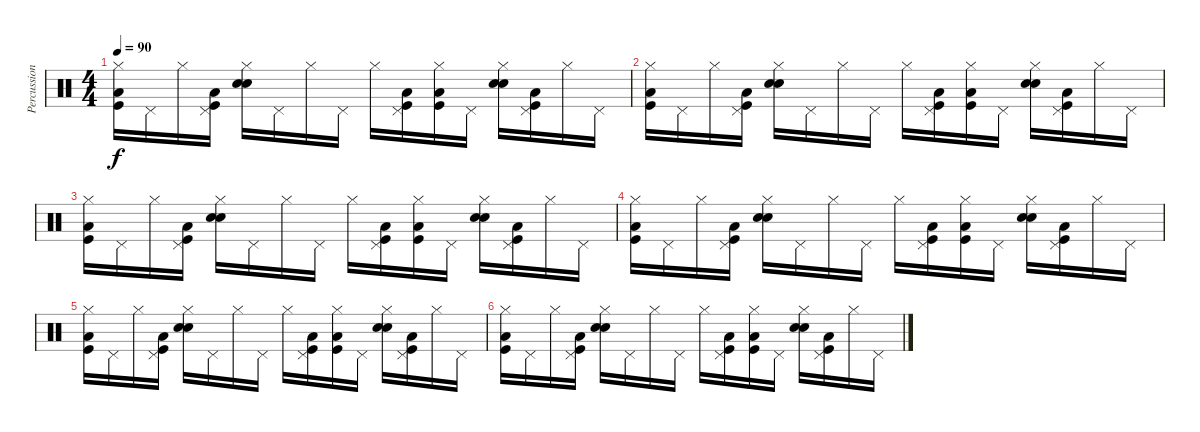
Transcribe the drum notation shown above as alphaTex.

\track ("Percussions" "Percussion") {instrument percussion}
\staff {score}
\articulation defaults
\ts (4 4)
\tempo 90
\clef neutral
\ks c
("Hi-Hat (closed)" "Low Floor Tom (hit)" "Kick (hit)").16{dy f volume 11 balance 0} "Pedal Hi-Hat (hit)".16 "Hi-Hat (closed)".16 ("Pedal Hi-Hat (hit)" "Kick (hit)" "Low Floor Tom (hit)").16 ("Hi-Hat (closed)" "Electric Snare (hit)" "Snare (hit) 2").16 "Pedal Hi-Hat (hit)".16 "Hi-Hat (closed)".16 "Pedal Hi-Hat (hit)".16 "Hi-Hat (closed)".16 ("Pedal Hi-Hat (hit)" "Low Floor Tom (hit)" "Kick (hit)").16 ("Hi-Hat (closed)" "Low Floor Tom (hit)" "Kick (hit)").16 "Pedal Hi-Hat (hit)".16 ("Hi-Hat (closed)" "Electric Snare (hit)" "Snare (hit) 2").16 ("Pedal Hi-Hat (hit)" "Kick (hit)" "Low Floor Tom (hit)").16 "Hi-Hat (closed)".16 "Pedal Hi-Hat (hit)".16 |
("Hi-Hat (closed)" "Low Floor Tom (hit)" "Kick (hit)").16{volume 11 balance 0} "Pedal Hi-Hat (hit)".16 "Hi-Hat (closed)".16 ("Pedal Hi-Hat (hit)" "Kick (hit)" "Low Floor Tom (hit)").16 ("Hi-Hat (closed)" "Electric Snare (hit)" "Snare (hit) 2").16 "Pedal Hi-Hat (hit)".16 "Hi-Hat (closed)".16 "Pedal Hi-Hat (hit)".16 "Hi-Hat (closed)".16 ("Pedal Hi-Hat (hit)" "Low Floor Tom (hit)" "Kick (hit)").16 ("Hi-Hat (closed)" "Low Floor Tom (hit)" "Kick (hit)").16 "Pedal Hi-Hat (hit)".16 ("Hi-Hat (closed)" "Electric Snare (hit)" "Snare (hit) 2").16 ("Pedal Hi-Hat (hit)" "Kick (hit)" "Low Floor Tom (hit)").16 "Hi-Hat (closed)".16 "Pedal Hi-Hat (hit)".16 |
("Hi-Hat (closed)" "Low Floor Tom (hit)" "Kick (hit)").16{volume 11 balance 0} "Pedal Hi-Hat (hit)".16 "Hi-Hat (closed)".16 ("Pedal Hi-Hat (hit)" "Kick (hit)" "Low Floor Tom (hit)").16 ("Hi-Hat (closed)" "Electric Snare (hit)" "Snare (hit) 2").16 "Pedal Hi-Hat (hit)".16 "Hi-Hat (closed)".16 "Pedal Hi-Hat (hit)".16 "Hi-Hat (closed)".16 ("Pedal Hi-Hat (hit)" "Low Floor Tom (hit)" "Kick (hit)").16 ("Hi-Hat (closed)" "Low Floor Tom (hit)" "Kick (hit)").16 "Pedal Hi-Hat (hit)".16 ("Hi-Hat (closed)" "Electric Snare (hit)" "Snare (hit) 2").16 ("Pedal Hi-Hat (hit)" "Kick (hit)" "Low Floor Tom (hit)").16 "Hi-Hat (closed)".16 "Pedal Hi-Hat (hit)".16 |
("Hi-Hat (closed)" "Low Floor Tom (hit)" "Kick (hit)").16{volume 11 balance 0} "Pedal Hi-Hat (hit)".16 "Hi-Hat (closed)".16 ("Pedal Hi-Hat (hit)" "Kick (hit)" "Low Floor Tom (hit)").16 ("Hi-Hat (closed)" "Electric Snare (hit)" "Snare (hit) 2").16 "Pedal Hi-Hat (hit)".16 "Hi-Hat (closed)".16 "Pedal Hi-Hat (hit)".16 "Hi-Hat (closed)".16 ("Pedal Hi-Hat (hit)" "Low Floor Tom (hit)" "Kick (hit)").16 ("Hi-Hat (closed)" "Low Floor Tom (hit)" "Kick (hit)").16 "Pedal Hi-Hat (hit)".16 ("Hi-Hat (closed)" "Electric Snare (hit)" "Snare (hit) 2").16 ("Pedal Hi-Hat (hit)" "Kick (hit)" "Low Floor Tom (hit)").16 "Hi-Hat (closed)".16 "Pedal Hi-Hat (hit)".16 |
("Hi-Hat (closed)" "Low Floor Tom (hit)" "Kick (hit)").16{balance 0} "Pedal Hi-Hat (hit)".16 "Hi-Hat (closed)".16 ("Pedal Hi-Hat (hit)" "Kick (hit)" "Low Floor Tom (hit)").16 ("Hi-Hat (closed)" "Electric Snare (hit)" "Snare (hit) 2").16 "Pedal Hi-Hat (hit)".16 "Hi-Hat (closed)".16 "Pedal Hi-Hat (hit)".16 "Hi-Hat (closed)".16 ("Pedal Hi-Hat (hit)" "Low Floor Tom (hit)" "Kick (hit)").16 ("Hi-Hat (closed)" "Low Floor Tom (hit)" "Kick (hit)").16 "Pedal Hi-Hat (hit)".16 ("Hi-Hat (closed)" "Electric Snare (hit)" "Snare (hit) 2").16 ("Pedal Hi-Hat (hit)" "Kick (hit)" "Low Floor Tom (hit)").16 "Hi-Hat (closed)".16 "Pedal Hi-Hat (hit)".16 |
("Hi-Hat (closed)" "Low Floor Tom (hit)" "Kick (hit)").16{balance 0} "Pedal Hi-Hat (hit)".16 "Hi-Hat (closed)".16 ("Pedal Hi-Hat (hit)" "Kick (hit)" "Low Floor Tom (hit)").16 ("Hi-Hat (closed)" "Electric Snare (hit)" "Snare (hit) 2").16 "Pedal Hi-Hat (hit)".16 "Hi-Hat (closed)".16 "Pedal Hi-Hat (hit)".16 "Hi-Hat (closed)".16 ("Pedal Hi-Hat (hit)" "Low Floor Tom (hit)" "Kick (hit)").16 ("Hi-Hat (closed)" "Low Floor Tom (hit)" "Kick (hit)").16 "Pedal Hi-Hat (hit)".16 ("Hi-Hat (closed)" "Electric Snare (hit)" "Snare (hit) 2").16 ("Pedal Hi-Hat (hit)" "Kick (hit)" "Low Floor Tom (hit)").16 "Hi-Hat (closed)".16 "Pedal Hi-Hat (hit)".16
